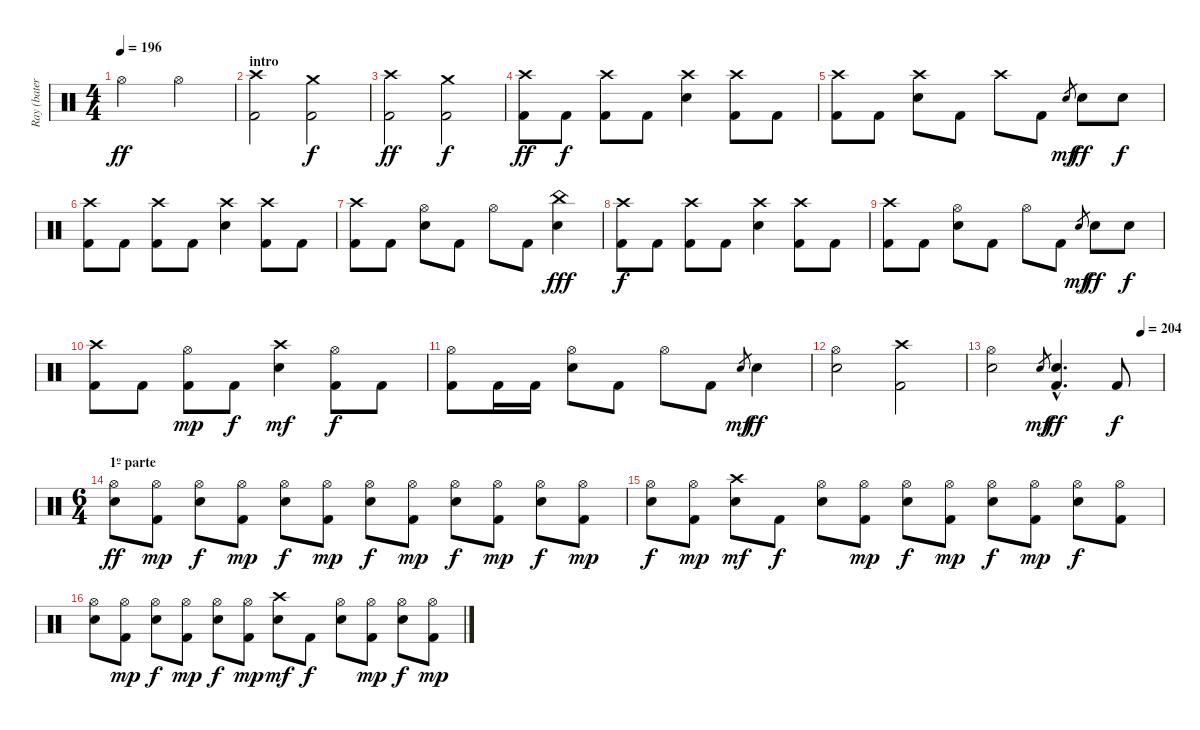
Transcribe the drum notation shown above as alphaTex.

\track ("Ray (batería)" "Ray (bater") {instrument percussion}
\staff {score}
\articulation defaults
\ts (4 4)
\tempo 196
\clef neutral
\ks c "Hi-Hat (open)".2{dy ff} "Hi-Hat (open)".2
|
\section ("" "intro")
("Crash high (hit)" "Kick (hit) 2").2 ("Crash medium (hit)" "Kick (hit) 2").2{dy f} |
("Crash high (hit)" "Kick (hit) 2").2{dy ff} ("Crash medium (hit)" "Kick (hit) 2").2{dy f} |
("Crash high (hit)" "Kick (hit) 2").8{dy ff} "Kick (hit) 2".8{dy f} ("Crash high (hit)" "Kick (hit) 2").8 "Kick (hit) 2".8 ("Crash high (hit)" "Snare (hit) 2").4 ("Crash high (hit)" "Kick (hit) 2").8 "Kick (hit) 2".8 |
("Crash high (hit)" "Kick (hit) 2").8 "Kick (hit) 2".8 ("Crash high (hit)" "Snare (hit) 2").8 "Kick (hit) 2".8 "Crash high (hit)".8 "Kick (hit) 2".8 "Snare (hit) 2".8{gr dy mf} "Snare (hit) 2".8{dy ff} "Snare (hit) 2".8{dy f} |
("Crash high (hit)" "Kick (hit) 2").8 "Kick (hit) 2".8 ("Crash high (hit)" "Kick (hit) 2").8 "Kick (hit) 2".8 ("Crash high (hit)" "Snare (hit) 2").4 ("Crash high (hit)" "Kick (hit) 2").8 "Kick (hit) 2".8 |
("Crash high (hit)" "Kick (hit) 2").8 "Kick (hit) 2".8 ("Hi-Hat (open)" "Snare (hit) 2").8 "Kick (hit) 2".8 "Hi-Hat (open)".8 "Kick (hit) 2".8 ("China (hit)" "Snare (hit) 2").4{dy fff} |
("Crash high (hit)" "Kick (hit) 2").8{dy f} "Kick (hit) 2".8 ("Crash high (hit)" "Kick (hit) 2").8 "Kick (hit) 2".8 ("Crash high (hit)" "Snare (hit) 2").4 ("Crash high (hit)" "Kick (hit) 2").8 "Kick (hit) 2".8 |
("Crash high (hit)" "Kick (hit) 2").8 "Kick (hit) 2".8 ("Hi-Hat (open)" "Snare (hit) 2").8 "Kick (hit) 2".8 "Hi-Hat (open)".8 "Kick (hit) 2".8 "Snare (hit) 2".8{gr dy mf} "Snare (hit) 2".8{dy ff} "Snare (hit) 2".8{dy f} |
("Crash high (hit)" "Kick (hit) 2").8 "Kick (hit) 2".8 ("Hi-Hat (open)" "Kick (hit) 2").8{dy mp} "Kick (hit) 2".8{dy f} ("Crash high (hit)" "Snare (hit) 2").4{dy mf} ("Hi-Hat (open)" "Kick (hit) 2").8{dy f} "Kick (hit) 2".8 |
("Hi-Hat (open)" "Kick (hit) 2").8 "Kick (hit) 2".16 "Kick (hit) 2".16 ("Hi-Hat (open)" "Snare (hit) 2").8 "Kick (hit) 2".8 "Hi-Hat (open)".8 "Kick (hit) 2".8 "Snare (hit) 2".8{gr dy mf} "Snare (hit) 2".4{dy ff} |
("Hi-Hat (open)" "Snare (hit) 2").2 ("Crash high (hit)" "Kick (hit) 2").2 |
\tempo (204 0.875)
("Hi-Hat (open)" "Snare (hit) 2").2 "Snare (hit) 2".8{gr dy mf} ("Snare (hit) 2"{hac} "Kick (hit) 2"{hac}).4{d dy ff} "Kick (hit) 2".8{dy f} |
\ts (6 4)
\section ("" "1º parte")
("Hi-Hat (open)" "Snare (hit) 2").8{dy ff} ("Hi-Hat (open)" "Kick (hit) 2").8{dy mp} ("Hi-Hat (open)" "Snare (hit) 2").8{dy f} ("Hi-Hat (open)" "Kick (hit) 2").8{dy mp} ("Hi-Hat (open)" "Snare (hit) 2").8{dy f} ("Hi-Hat (open)" "Kick (hit) 2").8{dy mp} ("Hi-Hat (open)" "Snare (hit) 2").8{dy f} ("Hi-Hat (open)" "Kick (hit) 2").8{dy mp} ("Hi-Hat (open)" "Snare (hit) 2").8{dy f} ("Hi-Hat (open)" "Kick (hit) 2").8{dy mp} ("Hi-Hat (open)" "Snare (hit) 2").8{dy f} ("Hi-Hat (open)" "Kick (hit) 2").8{dy mp} |
("Hi-Hat (open)" "Snare (hit) 2").8{dy f} ("Hi-Hat (open)" "Kick (hit) 2").8{dy mp} ("Crash high (hit)" "Snare (hit) 2").8{dy mf} "Kick (hit) 2".8{dy f} ("Hi-Hat (open)" "Snare (hit) 2").8 ("Hi-Hat (open)" "Kick (hit) 2").8{dy mp} ("Hi-Hat (open)" "Snare (hit) 2").8{dy f} ("Hi-Hat (open)" "Kick (hit) 2").8{dy mp} ("Hi-Hat (open)" "Snare (hit) 2").8{dy f} ("Hi-Hat (open)" "Kick (hit) 2").8{dy mp} ("Hi-Hat (open)" "Snare (hit) 2").8{dy f} ("Hi-Hat (open)" "Kick (hit) 2").8 |
("Hi-Hat (open)" "Snare (hit) 2").8 ("Hi-Hat (open)" "Kick (hit) 2").8{dy mp} ("Hi-Hat (open)" "Snare (hit) 2").8{dy f} ("Hi-Hat (open)" "Kick (hit) 2").8{dy mp} ("Hi-Hat (open)" "Snare (hit) 2").8{dy f} ("Hi-Hat (open)" "Kick (hit) 2").8{dy mp} ("Crash high (hit)" "Snare (hit) 2").8{dy mf} "Kick (hit) 2".8{dy f} ("Hi-Hat (open)" "Snare (hit) 2").8 ("Hi-Hat (open)" "Kick (hit) 2").8{dy mp} ("Hi-Hat (open)" "Snare (hit) 2").8{dy f} ("Hi-Hat (open)" "Kick (hit) 2").8{dy mp}
